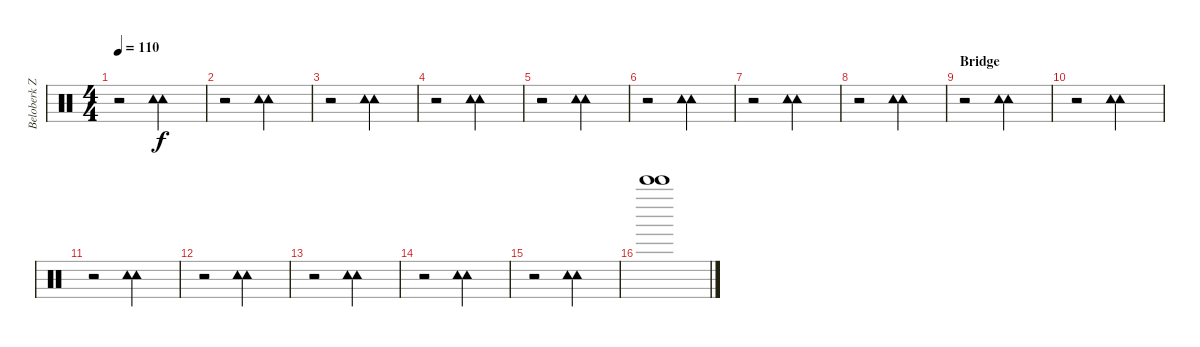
\track ("Beloberk Zsolt" "Beloberk Z") {instrument percussion}
\staff {score}
\articulation defaults
\ts (4 4)
\tempo 110
\clef neutral
\ks c
r.2{dy f} ("Tambourine (hit)" "Tambourine (hit)").2 |
r.2 ("Tambourine (hit)" "Tambourine (hit)").2 |
r.2 ("Tambourine (hit)" "Tambourine (hit)").2 |
r.2 ("Tambourine (hit)" "Tambourine (hit)").2 |
r.2 ("Tambourine (hit)" "Tambourine (hit)").2 |
r.2 ("Tambourine (hit)" "Tambourine (hit)").2 |
r.2 ("Tambourine (hit)" "Tambourine (hit)").2 |
r.2 ("Tambourine (hit)" "Tambourine (hit)").2 |
\section ("" "Bridge")
r.2 ("Tambourine (hit)" "Tambourine (hit)").2 |
r.2 ("Tambourine (hit)" "Tambourine (hit)").2 |
r.2 ("Tambourine (hit)" "Tambourine (hit)").2 |
r.2 ("Tambourine (hit)" "Tambourine (hit)").2 |
r.2 ("Tambourine (hit)" "Tambourine (hit)").2 |
r.2 ("Tambourine (hit)" "Tambourine (hit)").2 |
r.2 ("Tambourine (hit)" "Tambourine (hit)").2 |
("Bell Tree (hit)" "Bell Tree (hit)").1
